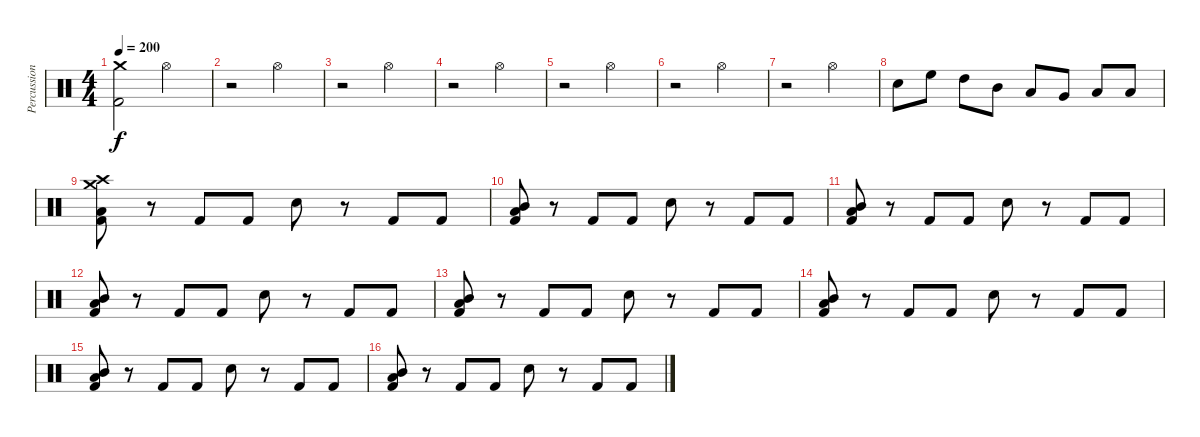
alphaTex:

\track ("Percussion" "Percussion") {instrument percussion}
\staff {score}
\articulation defaults
\ts (4 4)
\tempo 200
\clef neutral
\ks c
("Crash medium (hit)" "Kick (hit) 2").2{dy f} "Hi-Hat (open)".2 |
r.2 "Hi-Hat (open)".2 |
r.2 "Hi-Hat (open)".2 |
r.2 "Hi-Hat (open)".2 |
r.2 "Hi-Hat (open)".2 |
r.2 "Hi-Hat (open)".2 |
r.2 "Hi-Hat (open)".2 |
"Snare (hit) 2".8 "High Floor Tom (hit)".8 "High Tom (hit)".8 "Mid Tom (hit)".8 "Low Tom (hit)".8 "Very Low Tom (hit)".8 "Low Floor Tom (hit)".8 "Low Floor Tom (hit)".8 |
("Crash high (hit)" "Crash medium (hit)" "Low Tom (hit)" "Kick (hit) 2").8 r.8 "Kick (hit) 2".8 "Kick (hit) 2".8 "Snare (hit) 2".8 r.8 "Kick (hit) 2".8 "Kick (hit) 2".8 |
("Mid Tom (hit)" "Low Tom (hit)" "Kick (hit) 2").8 r.8 "Kick (hit) 2".8 "Kick (hit) 2".8 "Snare (hit) 2".8 r.8 "Kick (hit) 2".8 "Kick (hit) 2".8 |
("Mid Tom (hit)" "Low Tom (hit)" "Kick (hit) 2").8 r.8 "Kick (hit) 2".8 "Kick (hit) 2".8 "Snare (hit) 2".8 r.8 "Kick (hit) 2".8 "Kick (hit) 2".8 |
("Mid Tom (hit)" "Low Tom (hit)" "Kick (hit) 2").8 r.8 "Kick (hit) 2".8 "Kick (hit) 2".8 "Snare (hit) 2".8 r.8 "Kick (hit) 2".8 "Kick (hit) 2".8 |
("Mid Tom (hit)" "Low Tom (hit)" "Kick (hit) 2").8 r.8 "Kick (hit) 2".8 "Kick (hit) 2".8 "Snare (hit) 2".8 r.8 "Kick (hit) 2".8 "Kick (hit) 2".8 |
("Mid Tom (hit)" "Low Tom (hit)" "Kick (hit) 2").8 r.8 "Kick (hit) 2".8 "Kick (hit) 2".8 "Snare (hit) 2".8 r.8 "Kick (hit) 2".8 "Kick (hit) 2".8 |
("Mid Tom (hit)" "Low Tom (hit)" "Kick (hit) 2").8 r.8 "Kick (hit) 2".8 "Kick (hit) 2".8 "Snare (hit) 2".8 r.8 "Kick (hit) 2".8 "Kick (hit) 2".8 |
("Mid Tom (hit)" "Low Tom (hit)" "Kick (hit) 2").8 r.8 "Kick (hit) 2".8 "Kick (hit) 2".8 "Snare (hit) 2".8 r.8 "Kick (hit) 2".8 "Kick (hit) 2".8
